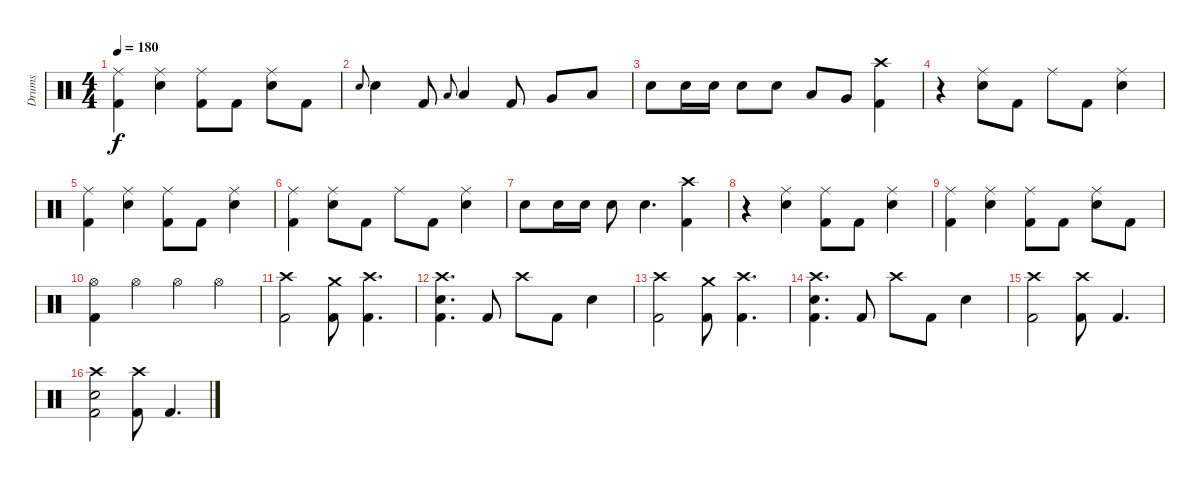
\track ("Drums" "Drums") {instrument percussion}
\staff {score}
\articulation defaults
\ts (4 4)
\tempo 180
\clef neutral
\ks c
("Ride (middle)" "Kick (hit) 2").4{dy f} ("Ride (middle)" "Electric Snare (hit)").4 ("Ride (middle)" "Kick (hit) 2").8 "Kick (hit) 2".8 ("Ride (middle)" "Electric Snare (hit)").8 "Kick (hit) 2".8 |
"Electric Snare (hit)".8{gr onbeat} "Electric Snare (hit)".4 "Kick (hit) 2".8 "Low Tom (hit)".8{gr onbeat} "Low Tom (hit)".4 "Kick (hit) 2".8 "Very Low Tom (hit)".8 "Low Floor Tom (hit)".8 |
"Electric Snare (hit)".8 "Electric Snare (hit)".16 "Electric Snare (hit)".16 "Electric Snare (hit)".8 "Electric Snare (hit)".8 "Low Tom (hit)".8 "Very Low Tom (hit)".8 ("Crash high (hit)" "Kick (hit) 2").4 |
r.4 ("Ride (middle)" "Electric Snare (hit)").8 "Kick (hit) 2".8 "Ride (middle)".8 "Kick (hit) 2".8 ("Ride (middle)" "Electric Snare (hit)").4 |
("Ride (middle)" "Kick (hit) 2").4 ("Ride (middle)" "Electric Snare (hit)").4 ("Ride (middle)" "Kick (hit) 2").8 "Kick (hit) 2".8 ("Ride (middle)" "Electric Snare (hit)").4 |
("Ride (middle)" "Kick (hit) 2").4 ("Ride (middle)" "Electric Snare (hit)").8 "Kick (hit) 2".8 "Ride (middle)".8 "Kick (hit) 2".8 ("Ride (middle)" "Electric Snare (hit)").4 |
"Electric Snare (hit)".8 "Electric Snare (hit)".16 "Electric Snare (hit)".16 "Electric Snare (hit)".8 "Electric Snare (hit)".4{d} ("Crash high (hit)" "Kick (hit) 2").4 |
r.4 ("Ride (middle)" "Electric Snare (hit)").4 ("Ride (middle)" "Kick (hit) 2").8 "Kick (hit) 2".8 ("Ride (middle)" "Electric Snare (hit)").4 |
("Ride (middle)" "Kick (hit) 2").4 ("Ride (middle)" "Electric Snare (hit)").4 ("Ride (middle)" "Kick (hit) 2").8 "Kick (hit) 2".8 ("Ride (middle)" "Electric Snare (hit)").8 "Kick (hit) 2".8 |
("Hi-Hat (open)" "Kick (hit) 2").4 "Hi-Hat (open)".4 "Hi-Hat (open)".4 "Hi-Hat (open)".4 |
("Crash high (hit)" "Kick (hit) 2").2 ("Crash medium (hit)" "Kick (hit) 2").8 ("Crash high (hit)" "Kick (hit) 2").4{d} |
("Crash high (hit)" "Electric Snare (hit)" "Kick (hit) 2").4{d} "Kick (hit) 2".8 "Crash high (hit)".8 "Kick (hit) 2".8 "Electric Snare (hit)".4 |
("Crash high (hit)" "Kick (hit) 2").2 ("Crash medium (hit)" "Kick (hit) 2").8 ("Crash high (hit)" "Kick (hit) 2").4{d} |
("Crash high (hit)" "Electric Snare (hit)" "Kick (hit) 2").4{d} "Kick (hit) 2".8 "Crash high (hit)".8 "Kick (hit) 2".8 "Electric Snare (hit)".4 |
("Crash high (hit)" "Kick (hit) 2").2 ("Crash high (hit)" "Kick (hit) 2").8 "Kick (hit) 2".4{d} |
("Crash high (hit)" "Electric Snare (hit)" "Kick (hit) 2").2 ("Crash high (hit)" "Kick (hit) 2").8 "Kick (hit) 2".4{d}
